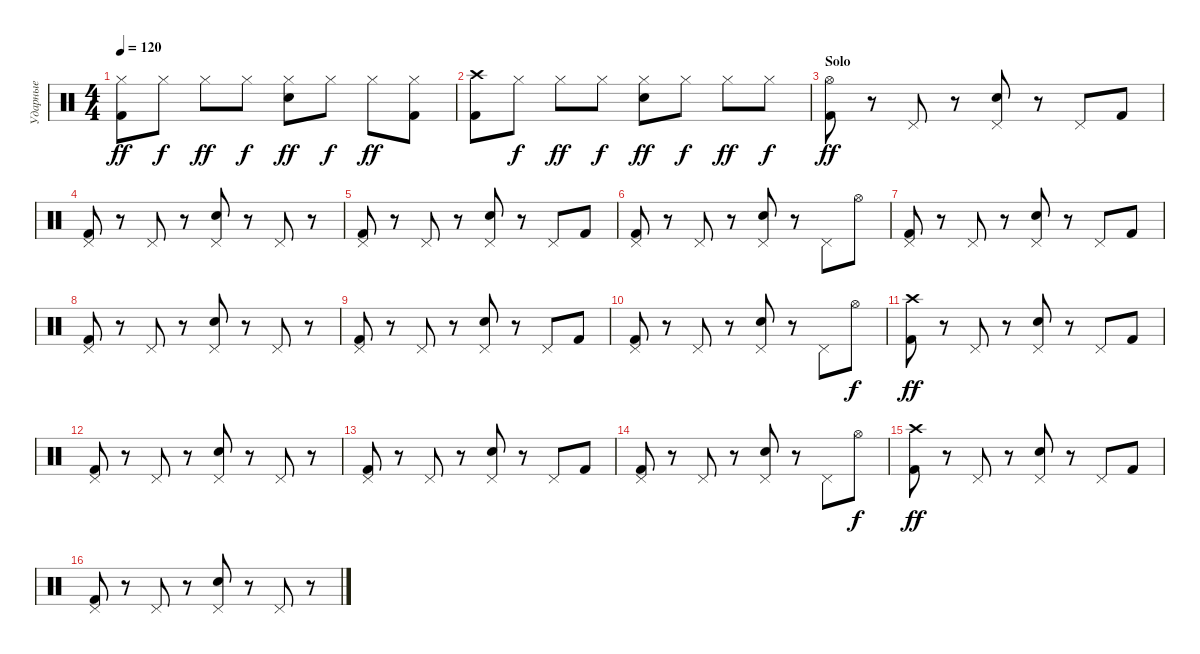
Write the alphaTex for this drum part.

\track ("Ударные" "Ударные") {instrument percussion}
\staff {score}
\articulation defaults
\ts (4 4)
\tempo 120
\clef neutral
\ks c
("Hi-Hat (closed)" "Kick (hit) 2").8{dy ff} "Hi-Hat (closed)".8{dy f} "Hi-Hat (closed)".8{dy ff} "Hi-Hat (closed)".8{dy f} ("Hi-Hat (closed)" "Snare (hit) 2").8{dy ff} "Hi-Hat (closed)".8{dy f} "Hi-Hat (closed)".8{dy ff} ("Hi-Hat (closed)" "Kick (hit) 2").8 |
("Crash high (hit)" "Kick (hit) 2").8 "Hi-Hat (closed)".8{dy f} "Hi-Hat (closed)".8{dy ff} "Hi-Hat (closed)".8{dy f} ("Hi-Hat (closed)" "Snare (hit) 2").8{dy ff} "Hi-Hat (closed)".8{dy f} "Hi-Hat (closed)".8{dy ff} "Hi-Hat (closed)".8{dy f} |
\section ("" "Solo")
("Hi-Hat (open)" "Kick (hit) 2").8{dy ff} r.8 "Pedal Hi-Hat (hit)".8 r.8 ("Pedal Hi-Hat (hit)" "Snare (hit) 2").8 r.8 "Pedal Hi-Hat (hit)".8 "Kick (hit) 2".8 |
("Pedal Hi-Hat (hit)" "Kick (hit) 2").8 r.8 "Pedal Hi-Hat (hit)".8 r.8 ("Pedal Hi-Hat (hit)" "Snare (hit) 2").8 r.8 "Pedal Hi-Hat (hit)".8 r.8 |
("Pedal Hi-Hat (hit)" "Kick (hit) 2").8 r.8 "Pedal Hi-Hat (hit)".8 r.8 ("Pedal Hi-Hat (hit)" "Snare (hit) 2").8 r.8 "Pedal Hi-Hat (hit)".8 "Kick (hit) 2".8 |
("Pedal Hi-Hat (hit)" "Kick (hit) 2").8 r.8 "Pedal Hi-Hat (hit)".8 r.8 ("Pedal Hi-Hat (hit)" "Snare (hit) 2").8 r.8 "Pedal Hi-Hat (hit)".8 "Hi-Hat (open)".8 |
("Pedal Hi-Hat (hit)" "Kick (hit) 2").8 r.8 "Pedal Hi-Hat (hit)".8 r.8 ("Pedal Hi-Hat (hit)" "Snare (hit) 2").8 r.8 "Pedal Hi-Hat (hit)".8 "Kick (hit) 2".8 |
("Pedal Hi-Hat (hit)" "Kick (hit) 2").8 r.8 "Pedal Hi-Hat (hit)".8 r.8 ("Pedal Hi-Hat (hit)" "Snare (hit) 2").8 r.8 "Pedal Hi-Hat (hit)".8 r.8 |
("Pedal Hi-Hat (hit)" "Kick (hit) 2").8 r.8 "Pedal Hi-Hat (hit)".8 r.8 ("Pedal Hi-Hat (hit)" "Snare (hit) 2").8 r.8 "Pedal Hi-Hat (hit)".8 "Kick (hit) 2".8 |
("Pedal Hi-Hat (hit)" "Kick (hit) 2").8 r.8 "Pedal Hi-Hat (hit)".8 r.8 ("Pedal Hi-Hat (hit)" "Snare (hit) 2").8 r.8 "Pedal Hi-Hat (hit)".8 "Hi-Hat (open)".8{dy f} |
("Crash high (hit)" "Kick (hit) 2").8{dy ff} r.8 "Pedal Hi-Hat (hit)".8 r.8 ("Pedal Hi-Hat (hit)" "Snare (hit) 2").8 r.8 "Pedal Hi-Hat (hit)".8 "Kick (hit) 2".8 |
("Pedal Hi-Hat (hit)" "Kick (hit) 2").8 r.8 "Pedal Hi-Hat (hit)".8 r.8 ("Pedal Hi-Hat (hit)" "Snare (hit) 2").8 r.8 "Pedal Hi-Hat (hit)".8 r.8 |
("Pedal Hi-Hat (hit)" "Kick (hit) 2").8 r.8 "Pedal Hi-Hat (hit)".8 r.8 ("Pedal Hi-Hat (hit)" "Snare (hit) 2").8 r.8 "Pedal Hi-Hat (hit)".8 "Kick (hit) 2".8 |
("Pedal Hi-Hat (hit)" "Kick (hit) 2").8 r.8 "Pedal Hi-Hat (hit)".8 r.8 ("Pedal Hi-Hat (hit)" "Snare (hit) 2").8 r.8 "Pedal Hi-Hat (hit)".8 "Hi-Hat (open)".8{dy f} |
("Crash high (hit)" "Kick (hit) 2").8{dy ff} r.8 "Pedal Hi-Hat (hit)".8 r.8 ("Pedal Hi-Hat (hit)" "Snare (hit) 2").8 r.8 "Pedal Hi-Hat (hit)".8 "Kick (hit) 2".8 |
("Pedal Hi-Hat (hit)" "Kick (hit) 2").8 r.8 "Pedal Hi-Hat (hit)".8 r.8 ("Pedal Hi-Hat (hit)" "Snare (hit) 2").8 r.8 "Pedal Hi-Hat (hit)".8 r.8
